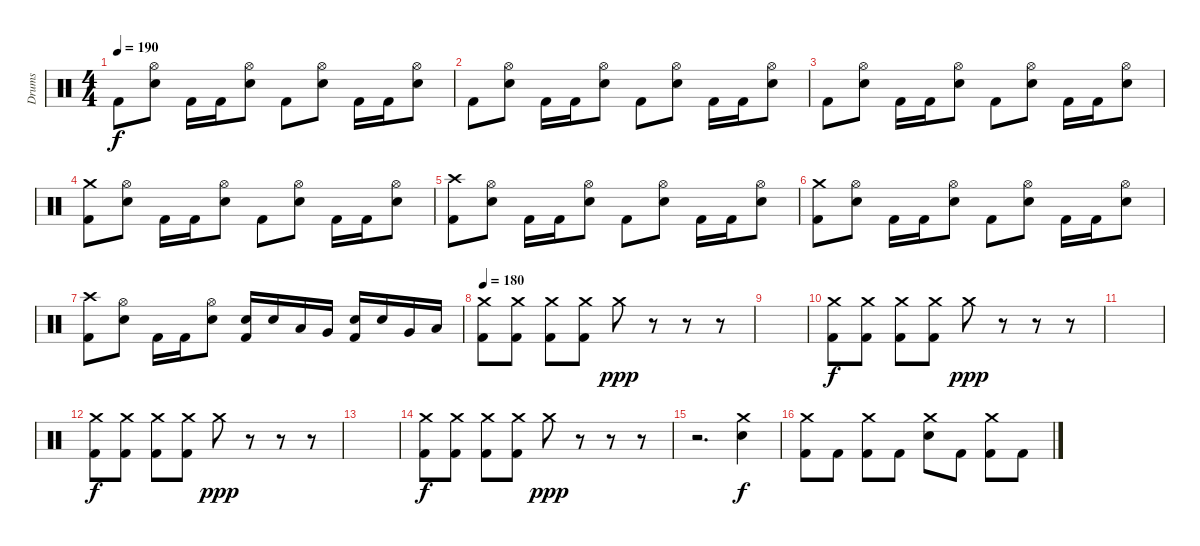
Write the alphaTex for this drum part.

\track ("Drums" "Drums") {instrument percussion}
\staff {score}
\articulation defaults
\ts (4 4)
\tempo 190
\clef neutral
\ks c "Kick (hit) 2".8{dy f}
("Hi-Hat (open)" "Electric Snare (hit)").8 "Kick (hit) 2".16 "Kick (hit) 2".16 ("Hi-Hat (open)" "Electric Snare (hit)").8 "Kick (hit) 2".8 ("Hi-Hat (open)" "Electric Snare (hit)").8 "Kick (hit) 2".16 "Kick (hit) 2".16 ("Hi-Hat (open)" "Electric Snare (hit)").8 |
"Kick (hit) 2".8 ("Hi-Hat (open)" "Electric Snare (hit)").8 "Kick (hit) 2".16 "Kick (hit) 2".16 ("Hi-Hat (open)" "Electric Snare (hit)").8 "Kick (hit) 2".8 ("Hi-Hat (open)" "Electric Snare (hit)").8 "Kick (hit) 2".16 "Kick (hit) 2".16 ("Hi-Hat (open)" "Electric Snare (hit)").8 |
"Kick (hit) 2".8 ("Hi-Hat (open)" "Electric Snare (hit)").8 "Kick (hit) 2".16 "Kick (hit) 2".16 ("Hi-Hat (open)" "Electric Snare (hit)").8 "Kick (hit) 2".8 ("Hi-Hat (open)" "Electric Snare (hit)").8 "Kick (hit) 2".16 "Kick (hit) 2".16 ("Hi-Hat (open)" "Electric Snare (hit)").8 |
("Crash medium (hit)" "Kick (hit) 2").8 ("Hi-Hat (open)" "Electric Snare (hit)").8 "Kick (hit) 2".16 "Kick (hit) 2".16 ("Hi-Hat (open)" "Electric Snare (hit)").8 "Kick (hit) 2".8 ("Hi-Hat (open)" "Electric Snare (hit)").8 "Kick (hit) 2".16 "Kick (hit) 2".16 ("Hi-Hat (open)" "Electric Snare (hit)").8 |
("Crash high (hit)" "Kick (hit) 2").8 ("Hi-Hat (open)" "Electric Snare (hit)").8 "Kick (hit) 2".16 "Kick (hit) 2".16 ("Hi-Hat (open)" "Electric Snare (hit)").8 "Kick (hit) 2".8 ("Hi-Hat (open)" "Electric Snare (hit)").8 "Kick (hit) 2".16 "Kick (hit) 2".16 ("Hi-Hat (open)" "Electric Snare (hit)").8 |
("Crash medium (hit)" "Kick (hit) 2").8 ("Hi-Hat (open)" "Electric Snare (hit)").8 "Kick (hit) 2".16 "Kick (hit) 2".16 ("Hi-Hat (open)" "Electric Snare (hit)").8 "Kick (hit) 2".8 ("Hi-Hat (open)" "Electric Snare (hit)").8 "Kick (hit) 2".16 "Kick (hit) 2".16 ("Hi-Hat (open)" "Electric Snare (hit)").8 |
("Crash high (hit)" "Kick (hit) 2").8 ("Hi-Hat (open)" "Electric Snare (hit)").8 "Kick (hit) 2".16 "Kick (hit) 2".16 ("Hi-Hat (open)" "Electric Snare (hit)").8 ("Electric Snare (hit)" "Kick (hit) 2").16 "Electric Snare (hit)".16 "Low Tom (hit)".16 "Very Low Tom (hit)".16 ("Electric Snare (hit)" "Kick (hit) 2").16 "Electric Snare (hit)".16 "Very Low Tom (hit)".16 "Low Floor Tom (hit)".16 |
\tempo 180
("Crash medium (hit)" "Kick (hit) 2").8 ("Crash medium (hit)" "Kick (hit) 2").8 ("Crash medium (hit)" "Kick (hit) 2").8 ("Crash medium (hit)" "Kick (hit) 2").8 "Crash medium (hit)".8{dy ppp} r.8 r.8 r.8 |
|
("Crash medium (hit)" "Kick (hit) 2").8{dy f} ("Crash medium (hit)" "Kick (hit) 2").8 ("Crash medium (hit)" "Kick (hit) 2").8 ("Crash medium (hit)" "Kick (hit) 2").8 "Crash medium (hit)".8{dy ppp} r.8 r.8 r.8 |
|
("Crash medium (hit)" "Kick (hit) 2").8{dy f} ("Crash medium (hit)" "Kick (hit) 2").8 ("Crash medium (hit)" "Kick (hit) 2").8 ("Crash medium (hit)" "Kick (hit) 2").8 "Crash medium (hit)".8{dy ppp} r.8 r.8 r.8 |
|
("Crash medium (hit)" "Kick (hit) 2").8{dy f} ("Crash medium (hit)" "Kick (hit) 2").8 ("Crash medium (hit)" "Kick (hit) 2").8 ("Crash medium (hit)" "Kick (hit) 2").8 "Crash medium (hit)".8{dy ppp} r.8 r.8 r.8 |
r.2{d} ("Crash medium (hit)" "Electric Snare (hit)").4{dy f} |
("Crash medium (hit)" "Kick (hit) 2").8 "Kick (hit) 2".8 ("Crash medium (hit)" "Kick (hit) 2").8 "Kick (hit) 2".8 ("Crash medium (hit)" "Electric Snare (hit)").8 "Kick (hit) 2".8 ("Crash medium (hit)" "Kick (hit) 2").8 "Kick (hit) 2".8
